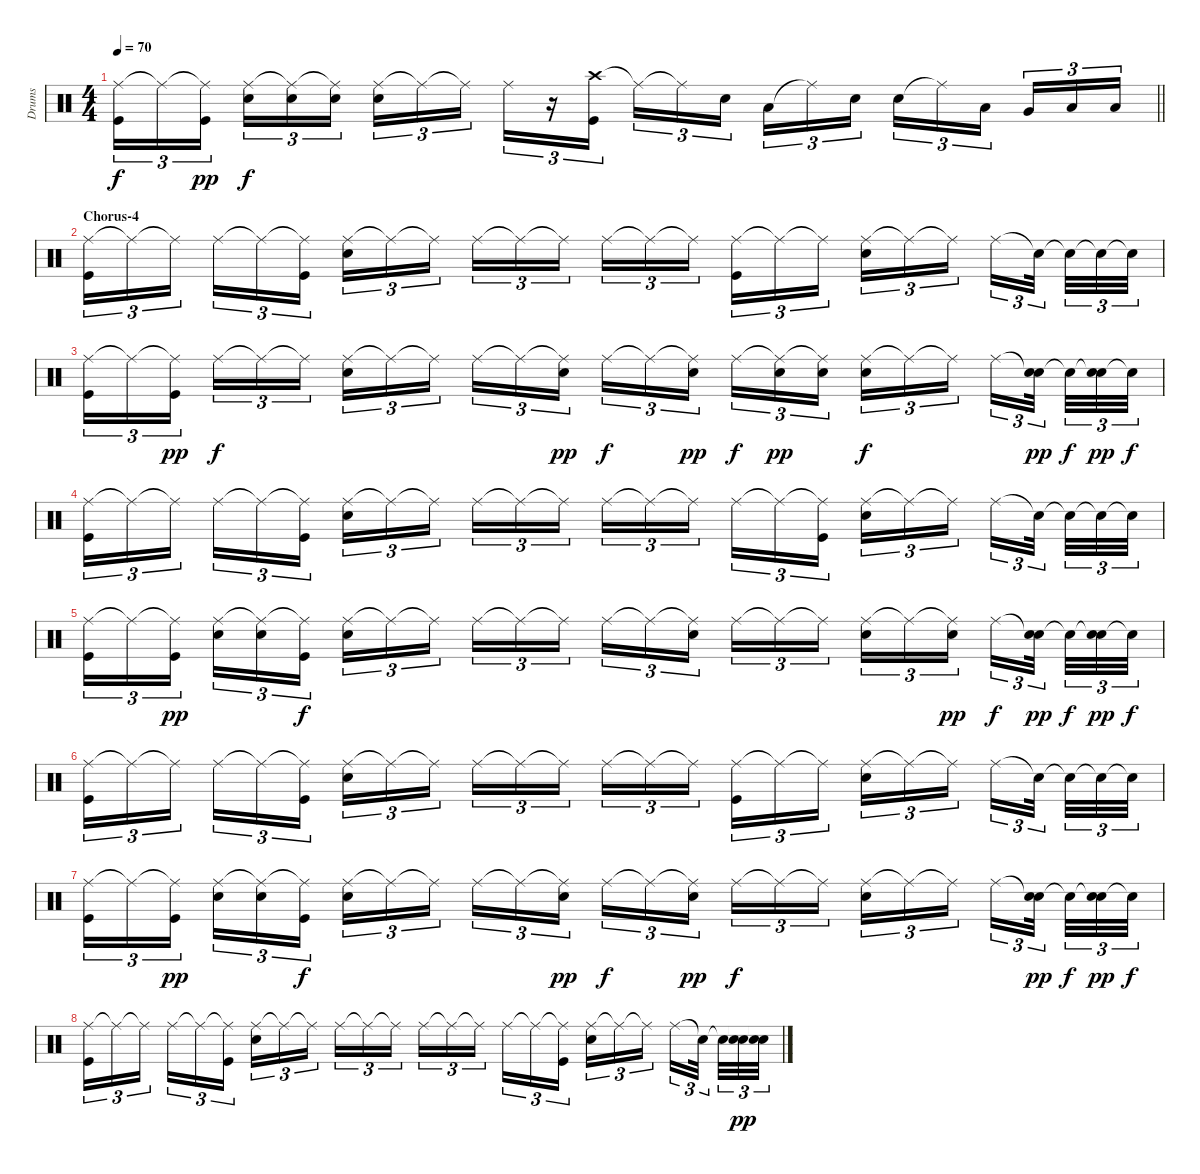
\track ("Drums" "Drums") {instrument percussion}
\staff {score}
\articulation defaults
\ts (4 4)
\tempo 70
\clef neutral
\barLineRight lightlight
\ks c
("Ride (middle)" "Kick (hit)").16{tu (3 2) dy f} "Ride (middle)"{t}.16{tu (3 2)} ("Ride (middle)"{t} "Kick (hit)").16{tu (3 2) dy pp} ("Ride (middle)" "Electric Snare (hit)").16{tu (3 2) dy f} ("Ride (middle)"{t} "Electric Snare (hit)").16{tu (3 2)} ("Ride (middle)"{t} "Electric Snare (hit)").16{tu (3 2)} ("Ride (middle)" "Electric Snare (hit)").16{tu (3 2)} "Ride (middle)"{t}.16{tu (3 2)} "Ride (middle)"{t}.16{tu (3 2)} "Ride (middle)".16{tu (3 2)} r.16{tu (3 2)} ("Crash high (hit)" "Kick (hit)").16{tu (3 2)} "Ride (middle)"{t}.16{tu (3 2)} "Ride (middle)"{t}.16{tu (3 2)} "Electric Snare (hit)".16{tu (3 2)} "Low Tom (hit)".16{tu (3 2)} "Ride (middle)"{t}.16{tu (3 2)} "Electric Snare (hit)".16{tu (3 2)} "Electric Snare (hit)".16{tu (3 2)} "Ride (middle)"{t}.16{tu (3 2)} "Low Tom (hit)".16{tu (3 2)} "Very Low Tom (hit)".16{tu (3 2)} "Low Floor Tom (hit)".16{tu (3 2)} "Low Floor Tom (hit)".16{tu (3 2)} |
\section ("" "Chorus-4")
("Ride (middle)" "Kick (hit)").16{tu (3 2)} "Ride (middle)"{t}.16{tu (3 2)} "Ride (middle)"{t}.16{tu (3 2)} "Ride (middle)".16{tu (3 2)} "Ride (middle)"{t}.16{tu (3 2)} ("Ride (middle)"{t} "Kick (hit)").16{tu (3 2)} ("Ride (middle)" "Electric Snare (hit)").16{tu (3 2)} "Ride (middle)"{t}.16{tu (3 2)} "Ride (middle)"{t}.16{tu (3 2)} "Ride (middle)".16{tu (3 2)} "Ride (middle)"{t}.16{tu (3 2)} "Ride (middle)"{t}.16{tu (3 2)} "Ride (middle)".16{tu (3 2)} "Ride (middle)"{t}.16{tu (3 2)} "Ride (middle)"{t}.16{tu (3 2)} ("Ride (middle)" "Kick (hit)").16{tu (3 2)} "Ride (middle)"{t}.16{tu (3 2)} "Ride (middle)"{t}.16{tu (3 2)} ("Ride (middle)" "Electric Snare (hit)").16{tu (3 2)} "Ride (middle)"{t}.16{tu (3 2)} "Ride (middle)"{t}.16{tu (3 2)} "Ride (middle)".16{tu (3 2)} "Snare (hit)"{t}.32{tu (3 2)} "Snare (hit)"{t}.32{tu (3 2)} "Snare (hit)"{t}.32{tu (3 2)} "Snare (hit)"{t}.32{tu (3 2)} |
("Ride (middle)" "Kick (hit)").16{tu (3 2)} "Ride (middle)"{t}.16{tu (3 2)} ("Ride (middle)"{t} "Kick (hit)").16{tu (3 2) dy pp} "Ride (middle)".16{tu (3 2) dy f} "Ride (middle)"{t}.16{tu (3 2)} "Ride (middle)"{t}.16{tu (3 2)} ("Ride (middle)" "Electric Snare (hit)").16{tu (3 2)} "Ride (middle)"{t}.16{tu (3 2)} "Ride (middle)"{t}.16{tu (3 2)} "Ride (middle)".16{tu (3 2)} "Ride (middle)"{t}.16{tu (3 2)} ("Ride (middle)"{t} "Electric Snare (hit)").16{tu (3 2) dy pp} "Ride (middle)".16{tu (3 2) dy f} "Ride (middle)"{t}.16{tu (3 2)} ("Ride (middle)"{t} "Electric Snare (hit)").16{tu (3 2) dy pp} "Ride (middle)".16{tu (3 2) dy f} ("Ride (middle)"{t} "Electric Snare (hit)").16{tu (3 2) dy pp} ("Ride (middle)"{t} "Electric Snare (hit)").16{tu (3 2)} ("Ride (middle)" "Electric Snare (hit)").16{tu (3 2) dy f} "Ride (middle)"{t}.16{tu (3 2)} "Ride (middle)"{t}.16{tu (3 2)} "Ride (middle)".16{tu (3 2)} ("Snare (hit)"{t} "Electric Snare (hit)").32{tu (3 2) dy pp} "Snare (hit)"{t}.32{tu (3 2) dy f} ("Snare (hit)"{t} "Electric Snare (hit)").32{tu (3 2) dy pp} "Snare (hit)"{t}.32{tu (3 2) dy f} |
("Ride (middle)" "Kick (hit)").16{tu (3 2)} "Ride (middle)"{t}.16{tu (3 2)} "Ride (middle)"{t}.16{tu (3 2)} "Ride (middle)".16{tu (3 2)} "Ride (middle)"{t}.16{tu (3 2)} ("Ride (middle)"{t} "Kick (hit)").16{tu (3 2)} ("Ride (middle)" "Electric Snare (hit)").16{tu (3 2)} "Ride (middle)"{t}.16{tu (3 2)} "Ride (middle)"{t}.16{tu (3 2)} "Ride (middle)".16{tu (3 2)} "Ride (middle)"{t}.16{tu (3 2)} "Ride (middle)"{t}.16{tu (3 2)} "Ride (middle)".16{tu (3 2)} "Ride (middle)"{t}.16{tu (3 2)} "Ride (middle)"{t}.16{tu (3 2)} "Ride (middle)".16{tu (3 2)} "Ride (middle)"{t}.16{tu (3 2)} ("Ride (middle)"{t} "Kick (hit)").16{tu (3 2)} ("Ride (middle)" "Electric Snare (hit)").16{tu (3 2)} "Ride (middle)"{t}.16{tu (3 2)} "Ride (middle)"{t}.16{tu (3 2)} "Ride (middle)".16{tu (3 2)} "Snare (hit)"{t}.32{tu (3 2)} "Snare (hit)"{t}.32{tu (3 2)} "Snare (hit)"{t}.32{tu (3 2)} "Snare (hit)"{t}.32{tu (3 2)} |
("Ride (middle)" "Kick (hit)").16{tu (3 2)} "Ride (middle)"{t}.16{tu (3 2)} ("Ride (middle)"{t} "Kick (hit)").16{tu (3 2) dy pp} ("Ride (middle)" "Electric Snare (hit)").16{tu (3 2)} ("Ride (middle)"{t} "Electric Snare (hit)").16{tu (3 2)} ("Ride (middle)"{t} "Kick (hit)").16{tu (3 2) dy f} ("Ride (middle)" "Electric Snare (hit)").16{tu (3 2)} "Ride (middle)"{t}.16{tu (3 2)} "Ride (middle)"{t}.16{tu (3 2)} "Ride (middle)".16{tu (3 2)} "Ride (middle)"{t}.16{tu (3 2)} "Ride (middle)"{t}.16{tu (3 2)} "Ride (middle)".16{tu (3 2)} "Ride (middle)"{t}.16{tu (3 2)} ("Ride (middle)"{t} "Electric Snare (hit)").16{tu (3 2)} "Ride (middle)".16{tu (3 2)} "Ride (middle)"{t}.16{tu (3 2)} "Ride (middle)"{t}.16{tu (3 2)} ("Ride (middle)" "Electric Snare (hit)").16{tu (3 2)} "Ride (middle)"{t}.16{tu (3 2)} ("Ride (middle)"{t} "Electric Snare (hit)").16{tu (3 2) dy pp} "Ride (middle)".16{tu (3 2) dy f} ("Snare (hit)"{t} "Electric Snare (hit)").32{tu (3 2) dy pp} "Snare (hit)"{t}.32{tu (3 2) dy f} ("Snare (hit)"{t} "Electric Snare (hit)").32{tu (3 2) dy pp} "Snare (hit)"{t}.32{tu (3 2) dy f} |
("Ride (middle)" "Kick (hit)").16{tu (3 2)} "Ride (middle)"{t}.16{tu (3 2)} "Ride (middle)"{t}.16{tu (3 2)} "Ride (middle)".16{tu (3 2)} "Ride (middle)"{t}.16{tu (3 2)} ("Ride (middle)"{t} "Kick (hit)").16{tu (3 2)} ("Ride (middle)" "Electric Snare (hit)").16{tu (3 2)} "Ride (middle)"{t}.16{tu (3 2)} "Ride (middle)"{t}.16{tu (3 2)} "Ride (middle)".16{tu (3 2)} "Ride (middle)"{t}.16{tu (3 2)} "Ride (middle)"{t}.16{tu (3 2)} "Ride (middle)".16{tu (3 2)} "Ride (middle)"{t}.16{tu (3 2)} "Ride (middle)"{t}.16{tu (3 2)} ("Ride (middle)" "Kick (hit)").16{tu (3 2)} "Ride (middle)"{t}.16{tu (3 2)} "Ride (middle)"{t}.16{tu (3 2)} ("Ride (middle)" "Electric Snare (hit)").16{tu (3 2)} "Ride (middle)"{t}.16{tu (3 2)} "Ride (middle)"{t}.16{tu (3 2)} "Ride (middle)".16{tu (3 2)} "Snare (hit)"{t}.32{tu (3 2)} "Snare (hit)"{t}.32{tu (3 2)} "Snare (hit)"{t}.32{tu (3 2)} "Snare (hit)"{t}.32{tu (3 2)} |
("Ride (middle)" "Kick (hit)").16{tu (3 2)} "Ride (middle)"{t}.16{tu (3 2)} ("Ride (middle)"{t} "Kick (hit)").16{tu (3 2) dy pp} ("Ride (middle)" "Electric Snare (hit)").16{tu (3 2)} ("Ride (middle)"{t} "Electric Snare (hit)").16{tu (3 2)} ("Ride (middle)"{t} "Kick (hit)").16{tu (3 2) dy f} ("Ride (middle)" "Electric Snare (hit)").16{tu (3 2)} "Ride (middle)"{t}.16{tu (3 2)} "Ride (middle)"{t}.16{tu (3 2)} "Ride (middle)".16{tu (3 2)} "Ride (middle)"{t}.16{tu (3 2)} ("Ride (middle)"{t} "Electric Snare (hit)").16{tu (3 2) dy pp} "Ride (middle)".16{tu (3 2) dy f} "Ride (middle)"{t}.16{tu (3 2)} ("Ride (middle)"{t} "Electric Snare (hit)").16{tu (3 2) dy pp} "Ride (middle)".16{tu (3 2) dy f} "Ride (middle)"{t}.16{tu (3 2)} "Ride (middle)"{t}.16{tu (3 2)} ("Ride (middle)" "Electric Snare (hit)").16{tu (3 2)} "Ride (middle)"{t}.16{tu (3 2)} "Ride (middle)"{t}.16{tu (3 2)} "Ride (middle)".16{tu (3 2)} ("Snare (hit)"{t} "Electric Snare (hit)").32{tu (3 2) dy pp} "Snare (hit)"{t}.32{tu (3 2) dy f} ("Snare (hit)"{t} "Electric Snare (hit)").32{tu (3 2) dy pp} "Snare (hit)"{t}.32{tu (3 2) dy f} |
("Ride (middle)" "Kick (hit)").16{tu (3 2)} "Ride (middle)"{t}.16{tu (3 2)} "Ride (middle)"{t}.16{tu (3 2)} "Ride (middle)".16{tu (3 2)} "Ride (middle)"{t}.16{tu (3 2)} ("Ride (middle)"{t} "Kick (hit)").16{tu (3 2)} ("Ride (middle)" "Electric Snare (hit)").16{tu (3 2)} "Ride (middle)"{t}.16{tu (3 2)} "Ride (middle)"{t}.16{tu (3 2)} "Ride (middle)".16{tu (3 2)} "Ride (middle)"{t}.16{tu (3 2)} "Ride (middle)"{t}.16{tu (3 2)} "Ride (middle)".16{tu (3 2)} "Ride (middle)"{t}.16{tu (3 2)} "Ride (middle)"{t}.16{tu (3 2)} "Ride (middle)".16{tu (3 2)} "Ride (middle)"{t}.16{tu (3 2)} ("Ride (middle)"{t} "Kick (hit)").16{tu (3 2)} ("Ride (middle)" "Electric Snare (hit)").16{tu (3 2)} "Ride (middle)"{t}.16{tu (3 2)} "Ride (middle)"{t}.16{tu (3 2)} "Ride (middle)".16{tu (3 2)} "Snare (hit)"{t}.32{tu (3 2)} "Snare (hit)"{t}.32{tu (3 2)} ("Snare (hit)"{t} "Electric Snare (hit)").32{tu (3 2) dy pp} ("Snare (hit)"{t} "Electric Snare (hit)").32{tu (3 2)}
